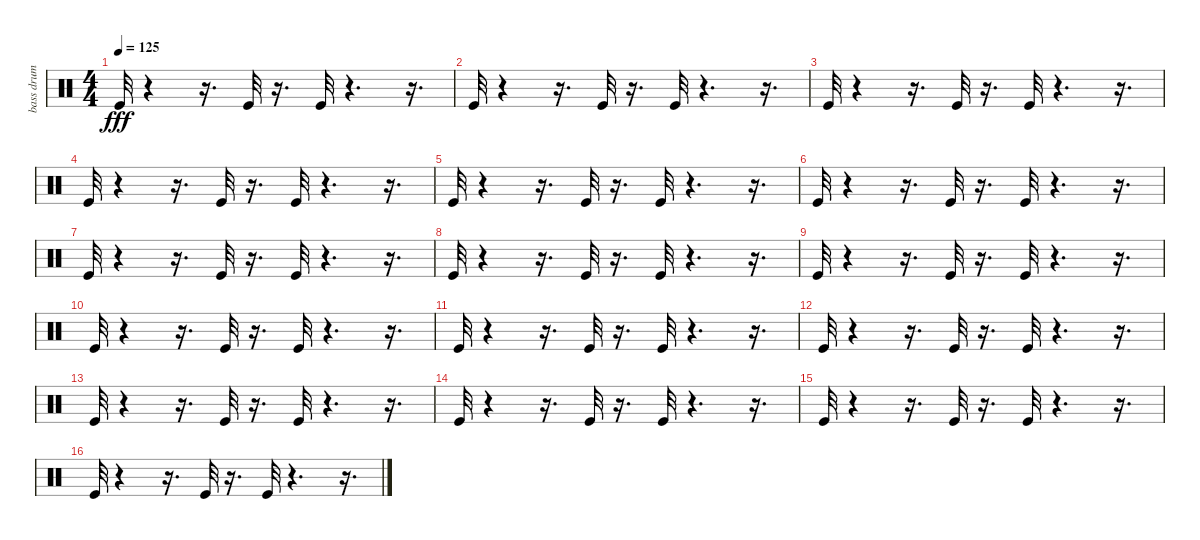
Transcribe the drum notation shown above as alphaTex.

\track ("bass drum" "bass drum") {instrument percussion}
\staff {score}
\articulation defaults
\ts (4 4)
\tempo 125
\clef neutral
\ks c "Kick (hit)".32{dy fff}
r.4 r.16{d} "Kick (hit)".32 r.16{d} "Kick (hit)".32 r.4{d} r.16{d} |
"Kick (hit)".32 r.4 r.16{d} "Kick (hit)".32 r.16{d} "Kick (hit)".32 r.4{d} r.16{d} |
"Kick (hit)".32 r.4 r.16{d} "Kick (hit)".32 r.16{d} "Kick (hit)".32 r.4{d} r.16{d} |
"Kick (hit)".32 r.4 r.16{d} "Kick (hit)".32 r.16{d} "Kick (hit)".32 r.4{d} r.16{d} |
"Kick (hit)".32 r.4 r.16{d} "Kick (hit)".32 r.16{d} "Kick (hit)".32 r.4{d} r.16{d} |
"Kick (hit)".32 r.4 r.16{d} "Kick (hit)".32 r.16{d} "Kick (hit)".32 r.4{d} r.16{d} |
"Kick (hit)".32 r.4 r.16{d} "Kick (hit)".32 r.16{d} "Kick (hit)".32 r.4{d} r.16{d} |
"Kick (hit)".32 r.4 r.16{d} "Kick (hit)".32 r.16{d} "Kick (hit)".32 r.4{d} r.16{d} |
"Kick (hit)".32 r.4 r.16{d} "Kick (hit)".32 r.16{d} "Kick (hit)".32 r.4{d} r.16{d} |
"Kick (hit)".32 r.4 r.16{d} "Kick (hit)".32 r.16{d} "Kick (hit)".32 r.4{d} r.16{d} |
"Kick (hit)".32 r.4 r.16{d} "Kick (hit)".32 r.16{d} "Kick (hit)".32 r.4{d} r.16{d} |
"Kick (hit)".32 r.4 r.16{d} "Kick (hit)".32 r.16{d} "Kick (hit)".32 r.4{d} r.16{d} |
"Kick (hit)".32 r.4 r.16{d} "Kick (hit)".32 r.16{d} "Kick (hit)".32 r.4{d} r.16{d} |
"Kick (hit)".32 r.4 r.16{d} "Kick (hit)".32 r.16{d} "Kick (hit)".32 r.4{d} r.16{d} |
"Kick (hit)".32 r.4 r.16{d} "Kick (hit)".32 r.16{d} "Kick (hit)".32 r.4{d} r.16{d} |
"Kick (hit)".32 r.4 r.16{d} "Kick (hit)".32 r.16{d} "Kick (hit)".32 r.4{d} r.16{d}
